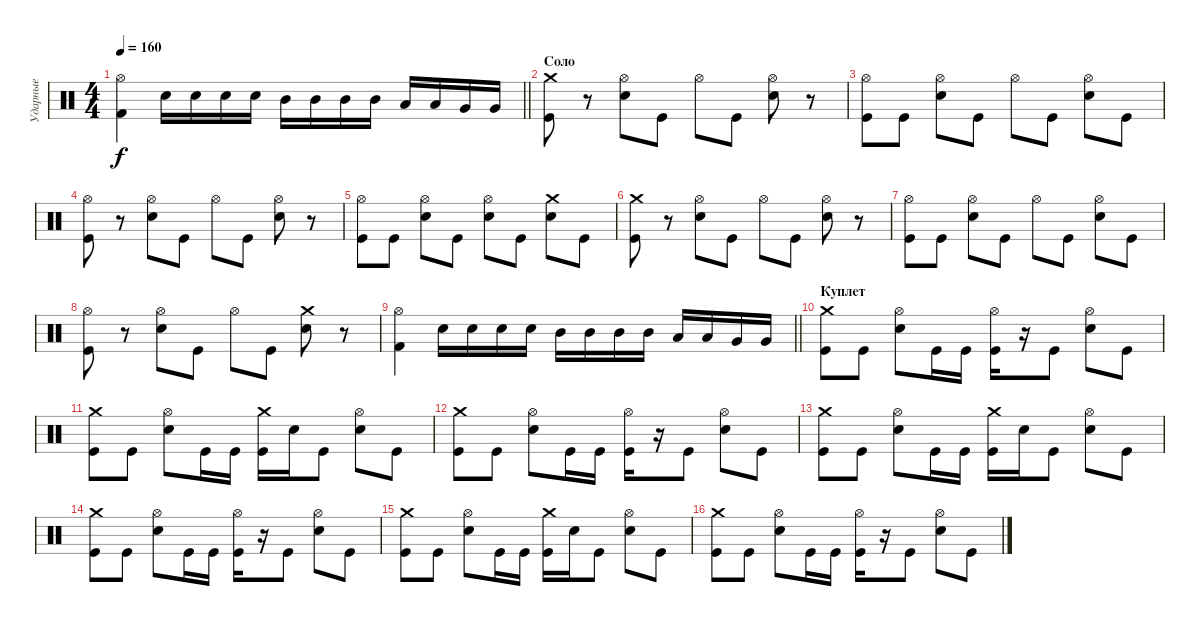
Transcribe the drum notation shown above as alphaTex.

\track ("Ударные" "Ударные") {instrument percussion}
\staff {score}
\articulation defaults
\ts (4 4)
\tempo 160
\clef neutral
\barLineRight lightlight
\ks c
("Kick (hit) 2" "Hi-Hat (open)").4{dy f} "Electric Snare (hit)".16 "Electric Snare (hit)".16 "Electric Snare (hit)".16 "Electric Snare (hit)".16 "Mid Tom (hit)".16 "Mid Tom (hit)".16 "Mid Tom (hit)".16 "Mid Tom (hit)".16 "Low Tom (hit)".16 "Low Tom (hit)".16 "Very Low Tom (hit)".16 "Very Low Tom (hit)".16 |
\section ("" "Соло")
("Kick (hit)" "Crash medium (hit)").8 r.8 ("Electric Snare (hit)" "Hi-Hat (open)").8 "Kick (hit)".8 "Hi-Hat (open)".8 "Kick (hit)".8 ("Electric Snare (hit)" "Hi-Hat (open)").8 r.8 |
("Kick (hit)" "Hi-Hat (open)").8 "Kick (hit)".8 ("Electric Snare (hit)" "Hi-Hat (open)").8 "Kick (hit)".8 "Hi-Hat (open)".8 "Kick (hit)".8 ("Electric Snare (hit)" "Hi-Hat (open)").8 "Kick (hit)".8 |
("Kick (hit)" "Hi-Hat (open)").8 r.8 ("Electric Snare (hit)" "Hi-Hat (open)").8 "Kick (hit)".8 "Hi-Hat (open)".8 "Kick (hit)".8 ("Electric Snare (hit)" "Hi-Hat (open)").8 r.8 |
("Kick (hit)" "Hi-Hat (open)").8 "Kick (hit)".8 ("Electric Snare (hit)" "Hi-Hat (open)").8 "Kick (hit)".8 ("Electric Snare (hit)" "Hi-Hat (open)").8 "Kick (hit)".8 ("Electric Snare (hit)" "Crash medium (hit)").8 "Kick (hit)".8 |
("Kick (hit)" "Crash medium (hit)").8 r.8 ("Electric Snare (hit)" "Hi-Hat (open)").8 "Kick (hit)".8 "Hi-Hat (open)".8 "Kick (hit)".8 ("Electric Snare (hit)" "Hi-Hat (open)").8 r.8 |
("Kick (hit)" "Hi-Hat (open)").8 "Kick (hit)".8 ("Electric Snare (hit)" "Hi-Hat (open)").8 "Kick (hit)".8 "Hi-Hat (open)".8 "Kick (hit)".8 ("Electric Snare (hit)" "Hi-Hat (open)").8 "Kick (hit)".8 |
("Kick (hit)" "Hi-Hat (open)").8 r.8 ("Electric Snare (hit)" "Hi-Hat (open)").8 "Kick (hit)".8 "Hi-Hat (open)".8 "Kick (hit)".8 ("Electric Snare (hit)" "Crash medium (hit)").8 r.8 |
\barLineRight lightlight
("Kick (hit) 2" "Hi-Hat (open)").4 "Electric Snare (hit)".16 "Electric Snare (hit)".16 "Electric Snare (hit)".16 "Electric Snare (hit)".16 "Mid Tom (hit)".16 "Mid Tom (hit)".16 "Mid Tom (hit)".16 "Mid Tom (hit)".16 "Low Tom (hit)".16 "Low Tom (hit)".16 "Very Low Tom (hit)".16 "Very Low Tom (hit)".16 |
\section ("" "Куплет")
("Kick (hit)" "Crash medium (hit)").8 "Kick (hit)".8 ("Electric Snare (hit)" "Hi-Hat (open)").8 "Kick (hit)".16 "Kick (hit)".16 ("Kick (hit)" "Hi-Hat (open)").16 r.16 "Kick (hit)".8 ("Electric Snare (hit)" "Hi-Hat (open)").8 "Kick (hit)".8 |
("Kick (hit)" "Crash medium (hit)").8 "Kick (hit)".8 ("Electric Snare (hit)" "Hi-Hat (open)").8 "Kick (hit)".16 "Kick (hit)".16 ("Kick (hit)" "Crash medium (hit)").16 "Electric Snare (hit)".16 "Kick (hit)".8 ("Electric Snare (hit)" "Hi-Hat (open)").8 "Kick (hit)".8 |
("Kick (hit)" "Crash medium (hit)").8 "Kick (hit)".8 ("Electric Snare (hit)" "Hi-Hat (open)").8 "Kick (hit)".16 "Kick (hit)".16 ("Kick (hit)" "Hi-Hat (open)").16 r.16 "Kick (hit)".8 ("Electric Snare (hit)" "Hi-Hat (open)").8 "Kick (hit)".8 |
("Kick (hit)" "Crash medium (hit)").8 "Kick (hit)".8 ("Electric Snare (hit)" "Hi-Hat (open)").8 "Kick (hit)".16 "Kick (hit)".16 ("Kick (hit)" "Crash medium (hit)").16 "Electric Snare (hit)".16 "Kick (hit)".8 ("Electric Snare (hit)" "Hi-Hat (open)").8 "Kick (hit)".8 |
("Kick (hit)" "Crash medium (hit)").8 "Kick (hit)".8 ("Electric Snare (hit)" "Hi-Hat (open)").8 "Kick (hit)".16 "Kick (hit)".16 ("Kick (hit)" "Hi-Hat (open)").16 r.16 "Kick (hit)".8 ("Electric Snare (hit)" "Hi-Hat (open)").8 "Kick (hit)".8 |
("Kick (hit)" "Crash medium (hit)").8 "Kick (hit)".8 ("Electric Snare (hit)" "Hi-Hat (open)").8 "Kick (hit)".16 "Kick (hit)".16 ("Kick (hit)" "Crash medium (hit)").16 "Electric Snare (hit)".16 "Kick (hit)".8 ("Electric Snare (hit)" "Hi-Hat (open)").8 "Kick (hit)".8 |
("Kick (hit)" "Crash medium (hit)").8 "Kick (hit)".8 ("Electric Snare (hit)" "Hi-Hat (open)").8 "Kick (hit)".16 "Kick (hit)".16 ("Kick (hit)" "Hi-Hat (open)").16 r.16 "Kick (hit)".8 ("Electric Snare (hit)" "Hi-Hat (open)").8 "Kick (hit)".8
